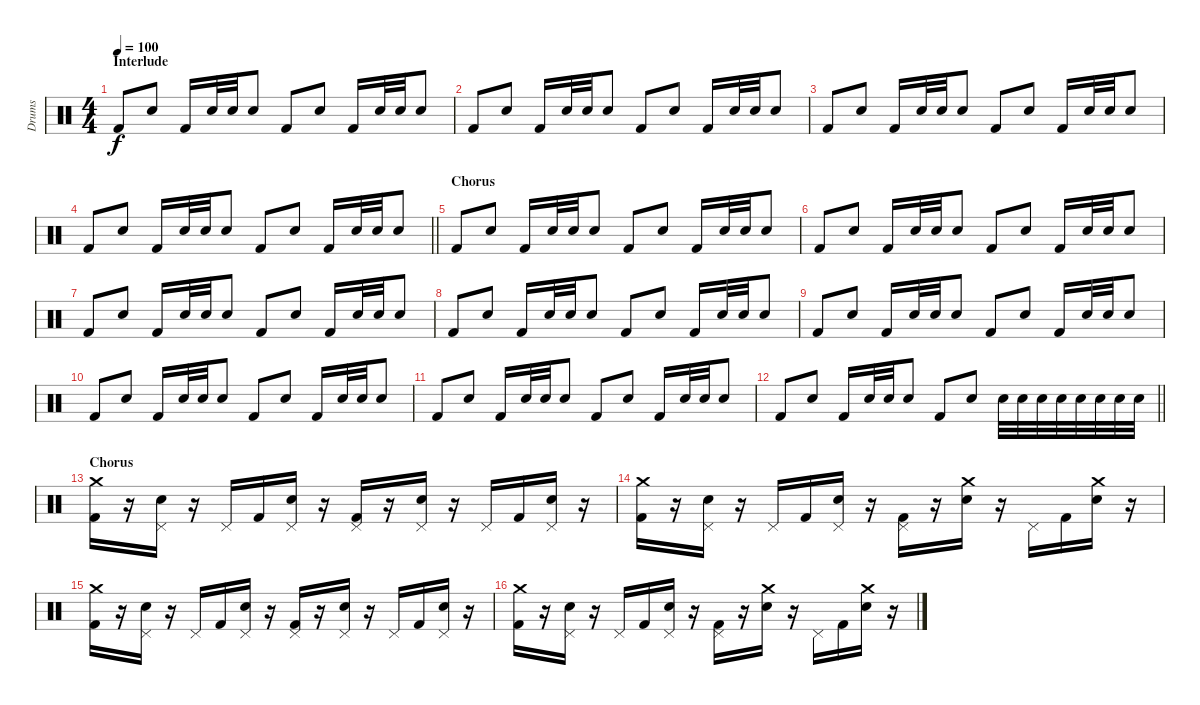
\track ("Drums" "Drums") {instrument percussion}
\staff {score}
\articulation defaults
\ts (4 4)
\section ("" "Interlude")
\tempo 100
\clef neutral
\ks c "Kick (hit) 2".8{dy f} "Electric Snare (hit)".8 "Kick (hit) 2".16 "Electric Snare (hit)".32 "Electric Snare (hit)".32 "Electric Snare (hit)".8 "Kick (hit) 2".8 "Electric Snare (hit)".8 "Kick (hit) 2".16 "Electric Snare (hit)".32 "Electric Snare (hit)".32 "Electric Snare (hit)".8
|
"Kick (hit) 2".8 "Electric Snare (hit)".8 "Kick (hit) 2".16 "Electric Snare (hit)".32 "Electric Snare (hit)".32 "Electric Snare (hit)".8 "Kick (hit) 2".8 "Electric Snare (hit)".8 "Kick (hit) 2".16 "Electric Snare (hit)".32 "Electric Snare (hit)".32 "Electric Snare (hit)".8 |
"Kick (hit) 2".8 "Electric Snare (hit)".8 "Kick (hit) 2".16 "Electric Snare (hit)".32 "Electric Snare (hit)".32 "Electric Snare (hit)".8 "Kick (hit) 2".8 "Electric Snare (hit)".8 "Kick (hit) 2".16 "Electric Snare (hit)".32 "Electric Snare (hit)".32 "Electric Snare (hit)".8 |
\barLineRight lightlight "Kick (hit) 2".8 "Electric Snare (hit)".8 "Kick (hit) 2".16 "Electric Snare (hit)".32 "Electric Snare (hit)".32 "Electric Snare (hit)".8 "Kick (hit) 2".8 "Electric Snare (hit)".8 "Kick (hit) 2".16 "Electric Snare (hit)".32 "Electric Snare (hit)".32 "Electric Snare (hit)".8
|
\section ("" "Chorus")
"Kick (hit) 2".8 "Electric Snare (hit)".8 "Kick (hit) 2".16 "Electric Snare (hit)".32 "Electric Snare (hit)".32 "Electric Snare (hit)".8 "Kick (hit) 2".8 "Electric Snare (hit)".8 "Kick (hit) 2".16 "Electric Snare (hit)".32 "Electric Snare (hit)".32 "Electric Snare (hit)".8 |
"Kick (hit) 2".8 "Electric Snare (hit)".8 "Kick (hit) 2".16 "Electric Snare (hit)".32 "Electric Snare (hit)".32 "Electric Snare (hit)".8 "Kick (hit) 2".8 "Electric Snare (hit)".8 "Kick (hit) 2".16 "Electric Snare (hit)".32 "Electric Snare (hit)".32 "Electric Snare (hit)".8 |
"Kick (hit) 2".8 "Electric Snare (hit)".8 "Kick (hit) 2".16 "Electric Snare (hit)".32 "Electric Snare (hit)".32 "Electric Snare (hit)".8 "Kick (hit) 2".8 "Electric Snare (hit)".8 "Kick (hit) 2".16 "Electric Snare (hit)".32 "Electric Snare (hit)".32 "Electric Snare (hit)".8 |
"Kick (hit) 2".8 "Electric Snare (hit)".8 "Kick (hit) 2".16 "Electric Snare (hit)".32 "Electric Snare (hit)".32 "Electric Snare (hit)".8 "Kick (hit) 2".8 "Electric Snare (hit)".8 "Kick (hit) 2".16 "Electric Snare (hit)".32 "Electric Snare (hit)".32 "Electric Snare (hit)".8 |
"Kick (hit) 2".8 "Electric Snare (hit)".8 "Kick (hit) 2".16 "Electric Snare (hit)".32 "Electric Snare (hit)".32 "Electric Snare (hit)".8 "Kick (hit) 2".8 "Electric Snare (hit)".8 "Kick (hit) 2".16 "Electric Snare (hit)".32 "Electric Snare (hit)".32 "Electric Snare (hit)".8 |
"Kick (hit) 2".8 "Electric Snare (hit)".8 "Kick (hit) 2".16 "Electric Snare (hit)".32 "Electric Snare (hit)".32 "Electric Snare (hit)".8 "Kick (hit) 2".8 "Electric Snare (hit)".8 "Kick (hit) 2".16 "Electric Snare (hit)".32 "Electric Snare (hit)".32 "Electric Snare (hit)".8 |
"Kick (hit) 2".8 "Electric Snare (hit)".8 "Kick (hit) 2".16 "Electric Snare (hit)".32 "Electric Snare (hit)".32 "Electric Snare (hit)".8 "Kick (hit) 2".8 "Electric Snare (hit)".8 "Kick (hit) 2".16 "Electric Snare (hit)".32 "Electric Snare (hit)".32 "Electric Snare (hit)".8 |
\barLineRight lightlight "Kick (hit) 2".8 "Electric Snare (hit)".8 "Kick (hit) 2".16 "Electric Snare (hit)".32 "Electric Snare (hit)".32 "Electric Snare (hit)".8 "Kick (hit) 2".8 "Electric Snare (hit)".8 "Electric Snare (hit)".32 "Electric Snare (hit)".32 "Electric Snare (hit)".32 "Electric Snare (hit)".32 "Electric Snare (hit)".32 "Electric Snare (hit)".32 "Electric Snare (hit)".32 "Electric Snare (hit)".32
|
\section ("" "Chorus")
("Crash medium (hit)" "Kick (hit) 2").16 r.16 ("Pedal Hi-Hat (hit)" "Electric Snare (hit)").16 r.16 "Pedal Hi-Hat (hit)".16 "Kick (hit) 2".16 ("Pedal Hi-Hat (hit)" "Electric Snare (hit)").16 r.16 ("Pedal Hi-Hat (hit)" "Kick (hit) 2").16 r.16 ("Pedal Hi-Hat (hit)" "Electric Snare (hit)").16 r.16 "Pedal Hi-Hat (hit)".16 "Kick (hit) 2".16 ("Pedal Hi-Hat (hit)" "Electric Snare (hit)").16 r.16 |
("Crash medium (hit)" "Kick (hit) 2").16 r.16 ("Pedal Hi-Hat (hit)" "Electric Snare (hit)").16 r.16 "Pedal Hi-Hat (hit)".16 "Kick (hit) 2".16 ("Pedal Hi-Hat (hit)" "Electric Snare (hit)").16 r.16 ("Pedal Hi-Hat (hit)" "Kick (hit) 2").16 r.16 ("Crash medium (hit)" "Electric Snare (hit)").16 r.16 "Pedal Hi-Hat (hit)".16 "Kick (hit) 2".16 ("Crash medium (hit)" "Electric Snare (hit)").16 r.16 |
("Crash medium (hit)" "Kick (hit) 2").16 r.16 ("Pedal Hi-Hat (hit)" "Electric Snare (hit)").16 r.16 "Pedal Hi-Hat (hit)".16 "Kick (hit) 2".16 ("Pedal Hi-Hat (hit)" "Electric Snare (hit)").16 r.16 ("Pedal Hi-Hat (hit)" "Kick (hit) 2").16 r.16 ("Pedal Hi-Hat (hit)" "Electric Snare (hit)").16 r.16 "Pedal Hi-Hat (hit)".16 "Kick (hit) 2".16 ("Pedal Hi-Hat (hit)" "Electric Snare (hit)").16 r.16 |
("Crash medium (hit)" "Kick (hit) 2").16 r.16 ("Pedal Hi-Hat (hit)" "Electric Snare (hit)").16 r.16 "Pedal Hi-Hat (hit)".16 "Kick (hit) 2".16 ("Pedal Hi-Hat (hit)" "Electric Snare (hit)").16 r.16 ("Pedal Hi-Hat (hit)" "Kick (hit) 2").16 r.16 ("Crash medium (hit)" "Electric Snare (hit)").16 r.16 "Pedal Hi-Hat (hit)".16 "Kick (hit) 2".16 ("Crash medium (hit)" "Electric Snare (hit)").16 r.16
